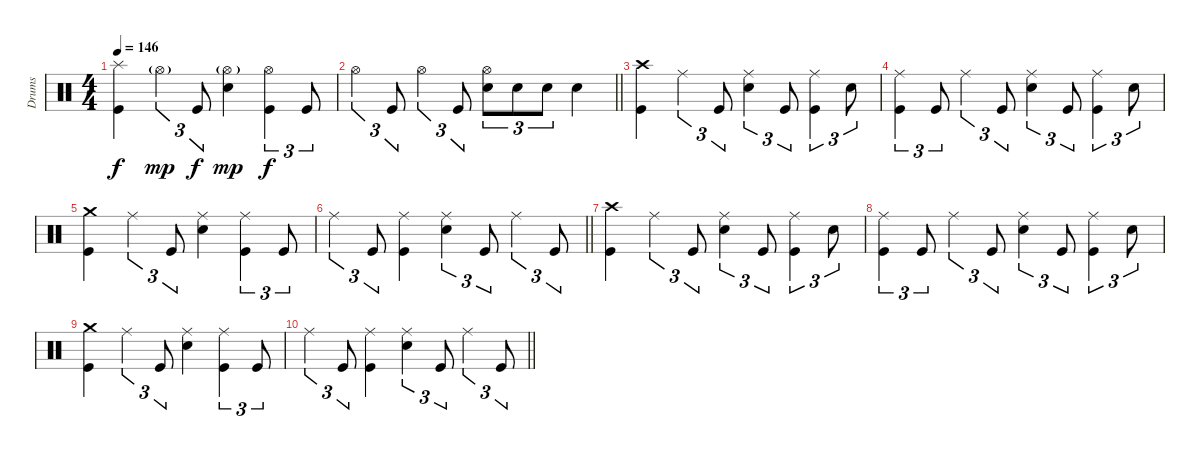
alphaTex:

\track ("Drums" "Drums") {instrument percussion}
\staff
\articulation defaults
\ts (4 4)
\tempo 146
\clef neutral
\ks c
("Splash (hit)" "Kick (hit)").4{dy f} "Hi-Hat (open)"{g}.4{tu (3 2) dy mp} "Kick (hit)".8{tu (3 2) dy f} ("Hi-Hat (open)"{g} "Electric Snare (hit)").4{dy mp} ("Hi-Hat (open)" "Kick (hit)").4{tu (3 2) dy f} "Kick (hit)".8{tu (3 2)} |
\barLineRight lightlight "Hi-Hat (open)".4{tu (3 2)} "Kick (hit)".8{tu (3 2)} "Hi-Hat (open)".4{tu (3 2)} "Kick (hit)".8{tu (3 2)}
("Hi-Hat (open)" "Electric Snare (hit)").8{tu (3 2)} "Electric Snare (hit)".8{tu (3 2)} "Electric Snare (hit)".8{tu (3 2)} "Electric Snare (hit)".4 |
\section ("" "")
("Crash high (hit)" "Kick (hit)").4 "Ride (middle)".4{tu (3 2)} "Kick (hit)".8{tu (3 2)} ("Ride (middle)" "Electric Snare (hit)").4{tu (3 2)} "Kick (hit)".8{tu (3 2)} ("Ride (middle)" "Kick (hit)").4{tu (3 2)} "Electric Snare (hit)".8{tu (3 2)} |
("Ride (middle)" "Kick (hit)").4{tu (3 2)} "Kick (hit)".8{tu (3 2)} "Ride (middle)".4{tu (3 2)} "Kick (hit)".8{tu (3 2)} ("Ride (middle)" "Electric Snare (hit)").4{tu (3 2)} "Kick (hit)".8{tu (3 2)} ("Ride (middle)" "Kick (hit)").4{tu (3 2)} "Electric Snare (hit)".8{tu (3 2)} |
("Crash medium (hit)" "Kick (hit)").4 "Ride (middle)".4{tu (3 2)} "Kick (hit)".8{tu (3 2)} ("Ride (middle)" "Electric Snare (hit)").4 ("Ride (middle)" "Kick (hit)").4{tu (3 2)} "Kick (hit)".8{tu (3 2)} |
\barLineRight lightlight "Ride (middle)".4{tu (3 2)} "Kick (hit)".8{tu (3 2)}
("Ride (middle)" "Kick (hit)").4 ("Ride (middle)" "Electric Snare (hit)").4{tu (3 2)} "Kick (hit)".8{tu (3 2)} "Ride (middle)".4{tu (3 2)} "Kick (hit)".8{tu (3 2)} |
("Crash high (hit)" "Kick (hit)").4 "Ride (middle)".4{tu (3 2)} "Kick (hit)".8{tu (3 2)} ("Ride (middle)" "Electric Snare (hit)").4{tu (3 2)} "Kick (hit)".8{tu (3 2)} ("Ride (middle)" "Kick (hit)").4{tu (3 2)} "Electric Snare (hit)".8{tu (3 2)} |
("Ride (middle)" "Kick (hit)").4{tu (3 2)} "Kick (hit)".8{tu (3 2)} "Ride (middle)".4{tu (3 2)} "Kick (hit)".8{tu (3 2)} ("Ride (middle)" "Electric Snare (hit)").4{tu (3 2)} "Kick (hit)".8{tu (3 2)} ("Ride (middle)" "Kick (hit)").4{tu (3 2)} "Electric Snare (hit)".8{tu (3 2)} |
("Crash medium (hit)" "Kick (hit)").4 "Ride (middle)".4{tu (3 2)} "Kick (hit)".8{tu (3 2)} ("Ride (middle)" "Electric Snare (hit)").4 ("Ride (middle)" "Kick (hit)").4{tu (3 2)} "Kick (hit)".8{tu (3 2)} |
\barLineRight lightlight "Ride (middle)".4{tu (3 2)} "Kick (hit)".8{tu (3 2)}
("Ride (middle)" "Kick (hit)").4 ("Ride (middle)" "Electric Snare (hit)").4{tu (3 2)} "Kick (hit)".8{tu (3 2)} "Ride (middle)".4{tu (3 2)} "Kick (hit)".8{tu (3 2)}
